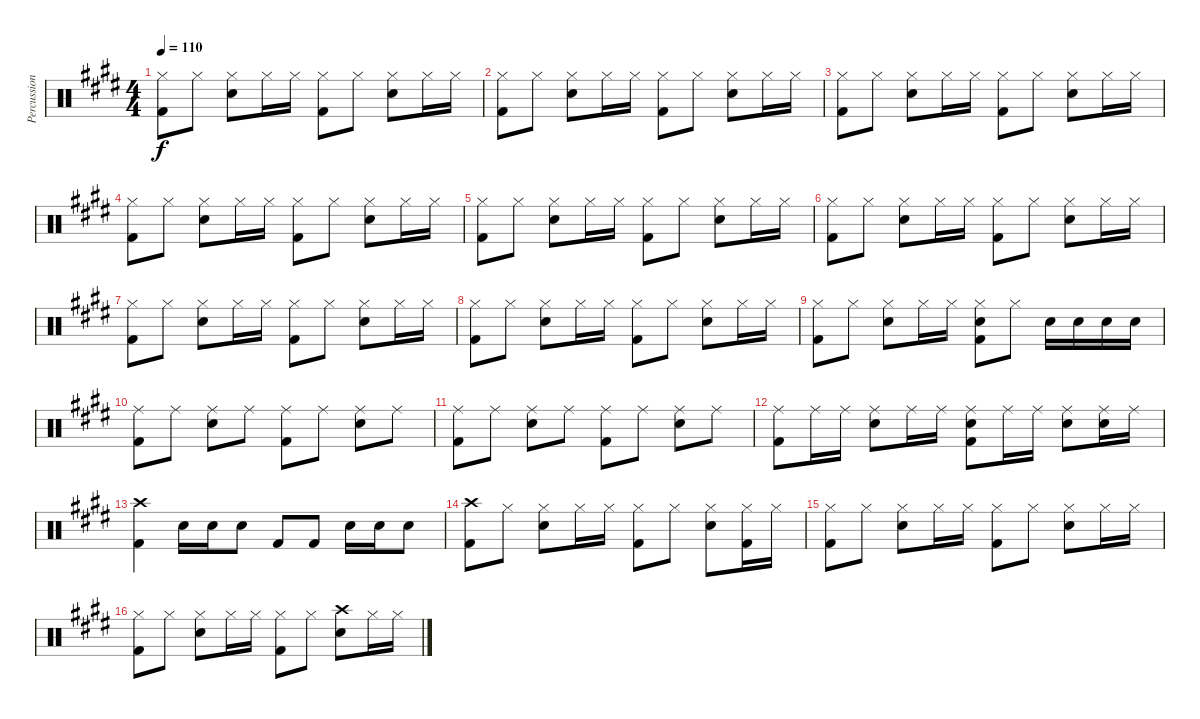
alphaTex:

\track ("Percussion" "Percussion") {instrument percussion}
\staff {score}
\articulation defaults
\ts (4 4)
\tempo 110
\clef neutral
\ks e
("Hi-Hat (closed)" "Kick (hit) 2").8{dy f} "Hi-Hat (closed)".8 ("Hi-Hat (closed)" "Snare (hit) 2").8 "Hi-Hat (closed)".16 "Hi-Hat (closed)".16 ("Hi-Hat (closed)" "Kick (hit) 2").8 "Hi-Hat (closed)".8 ("Hi-Hat (closed)" "Snare (hit) 2").8 "Hi-Hat (closed)".16 "Hi-Hat (closed)".16 |
("Hi-Hat (closed)" "Kick (hit) 2").8 "Hi-Hat (closed)".8 ("Hi-Hat (closed)" "Snare (hit) 2").8 "Hi-Hat (closed)".16 "Hi-Hat (closed)".16 ("Hi-Hat (closed)" "Kick (hit) 2").8 "Hi-Hat (closed)".8 ("Hi-Hat (closed)" "Snare (hit) 2").8 "Hi-Hat (closed)".16 "Hi-Hat (closed)".16 |
("Hi-Hat (closed)" "Kick (hit) 2").8 "Hi-Hat (closed)".8 ("Hi-Hat (closed)" "Snare (hit) 2").8 "Hi-Hat (closed)".16 "Hi-Hat (closed)".16 ("Hi-Hat (closed)" "Kick (hit) 2").8 "Hi-Hat (closed)".8 ("Hi-Hat (closed)" "Snare (hit) 2").8 "Hi-Hat (closed)".16 "Hi-Hat (closed)".16 |
("Hi-Hat (closed)" "Kick (hit) 2").8 "Hi-Hat (closed)".8 ("Hi-Hat (closed)" "Snare (hit) 2").8 "Hi-Hat (closed)".16 "Hi-Hat (closed)".16 ("Hi-Hat (closed)" "Kick (hit) 2").8 "Hi-Hat (closed)".8 ("Hi-Hat (closed)" "Snare (hit) 2").8 "Hi-Hat (closed)".16 "Hi-Hat (closed)".16 |
("Hi-Hat (closed)" "Kick (hit) 2").8 "Hi-Hat (closed)".8 ("Hi-Hat (closed)" "Snare (hit) 2").8 "Hi-Hat (closed)".16 "Hi-Hat (closed)".16 ("Hi-Hat (closed)" "Kick (hit) 2").8 "Hi-Hat (closed)".8 ("Hi-Hat (closed)" "Snare (hit) 2").8 "Hi-Hat (closed)".16 "Hi-Hat (closed)".16 |
("Hi-Hat (closed)" "Kick (hit) 2").8 "Hi-Hat (closed)".8 ("Hi-Hat (closed)" "Snare (hit) 2").8 "Hi-Hat (closed)".16 "Hi-Hat (closed)".16 ("Hi-Hat (closed)" "Kick (hit) 2").8 "Hi-Hat (closed)".8 ("Hi-Hat (closed)" "Snare (hit) 2").8 "Hi-Hat (closed)".16 "Hi-Hat (closed)".16 |
("Hi-Hat (closed)" "Kick (hit) 2").8 "Hi-Hat (closed)".8 ("Hi-Hat (closed)" "Snare (hit) 2").8 "Hi-Hat (closed)".16 "Hi-Hat (closed)".16 ("Hi-Hat (closed)" "Kick (hit) 2").8 "Hi-Hat (closed)".8 ("Hi-Hat (closed)" "Snare (hit) 2").8 "Hi-Hat (closed)".16 "Hi-Hat (closed)".16 |
("Hi-Hat (closed)" "Kick (hit) 2").8 "Hi-Hat (closed)".8 ("Hi-Hat (closed)" "Snare (hit) 2").8 "Hi-Hat (closed)".16 "Hi-Hat (closed)".16 ("Hi-Hat (closed)" "Kick (hit) 2").8 "Hi-Hat (closed)".8 ("Hi-Hat (closed)" "Snare (hit) 2").8 "Hi-Hat (closed)".16 "Hi-Hat (closed)".16 |
("Hi-Hat (closed)" "Kick (hit) 2").8 "Hi-Hat (closed)".8 ("Hi-Hat (closed)" "Snare (hit) 2").8 "Hi-Hat (closed)".16 "Hi-Hat (closed)".16 ("Hi-Hat (closed)" "Snare (hit) 2" "Kick (hit) 2").8 "Hi-Hat (closed)".8 "Snare (hit) 2".16 "Snare (hit) 2".16 "Snare (hit) 2".16 "Snare (hit) 2".16 |
("Ride (middle)" "Kick (hit) 2").8 "Ride (middle)".8 ("Ride (middle)" "Snare (hit) 2").8 "Ride (middle)".8 ("Ride (middle)" "Kick (hit) 2").8 "Ride (middle)".8 ("Ride (middle)" "Snare (hit) 2").8 "Ride (middle)".8 |
("Ride (middle)" "Kick (hit) 2").8 "Ride (middle)".8 ("Ride (middle)" "Snare (hit) 2").8 "Ride (middle)".8 ("Ride (middle)" "Kick (hit) 2").8 "Ride (middle)".8 ("Ride (middle)" "Snare (hit) 2").8 "Ride (middle)".8 |
("Ride (middle)" "Kick (hit) 2").8 "Ride (middle)".16 "Ride (middle)".16 ("Ride (middle)" "Snare (hit) 2").8 "Ride (middle)".16 "Ride (middle)".16 ("Ride (middle)" "Snare (hit) 2" "Kick (hit) 2").8 "Ride (middle)".16 "Ride (middle)".16 ("Ride (middle)" "Snare (hit) 2").8 ("Ride (middle)" "Snare (hit) 2").16 "Ride (middle)".16 |
("Crash high (hit)" "Kick (hit) 2").4 "Snare (hit) 2".16 "Snare (hit) 2".16 "Snare (hit) 2".8 "Kick (hit) 2".8 "Kick (hit) 2".8 "Snare (hit) 2".16 "Snare (hit) 2".16 "Snare (hit) 2".8 |
("Crash high (hit)" "Kick (hit) 2").8 "Hi-Hat (closed)".8 ("Hi-Hat (closed)" "Snare (hit) 2").8 "Hi-Hat (closed)".16 "Hi-Hat (closed)".16 ("Hi-Hat (closed)" "Kick (hit) 2").8 "Hi-Hat (closed)".8 ("Hi-Hat (closed)" "Snare (hit) 2").8 ("Hi-Hat (closed)" "Kick (hit) 2").16 "Hi-Hat (closed)".16 |
("Hi-Hat (closed)" "Kick (hit) 2").8 "Hi-Hat (closed)".8 ("Hi-Hat (closed)" "Snare (hit) 2").8 "Hi-Hat (closed)".16 "Hi-Hat (closed)".16 ("Hi-Hat (closed)" "Kick (hit) 2").8 "Hi-Hat (closed)".8 ("Hi-Hat (closed)" "Snare (hit) 2").8 "Hi-Hat (closed)".16 "Hi-Hat (closed)".16 |
("Hi-Hat (closed)" "Kick (hit) 2").8 "Hi-Hat (closed)".8 ("Hi-Hat (closed)" "Snare (hit) 2").8 "Hi-Hat (closed)".16 "Hi-Hat (closed)".16 ("Hi-Hat (closed)" "Kick (hit) 2").8 "Hi-Hat (closed)".8 ("Crash high (hit)" "Snare (hit) 2").8 "Hi-Hat (closed)".16 "Hi-Hat (closed)".16
